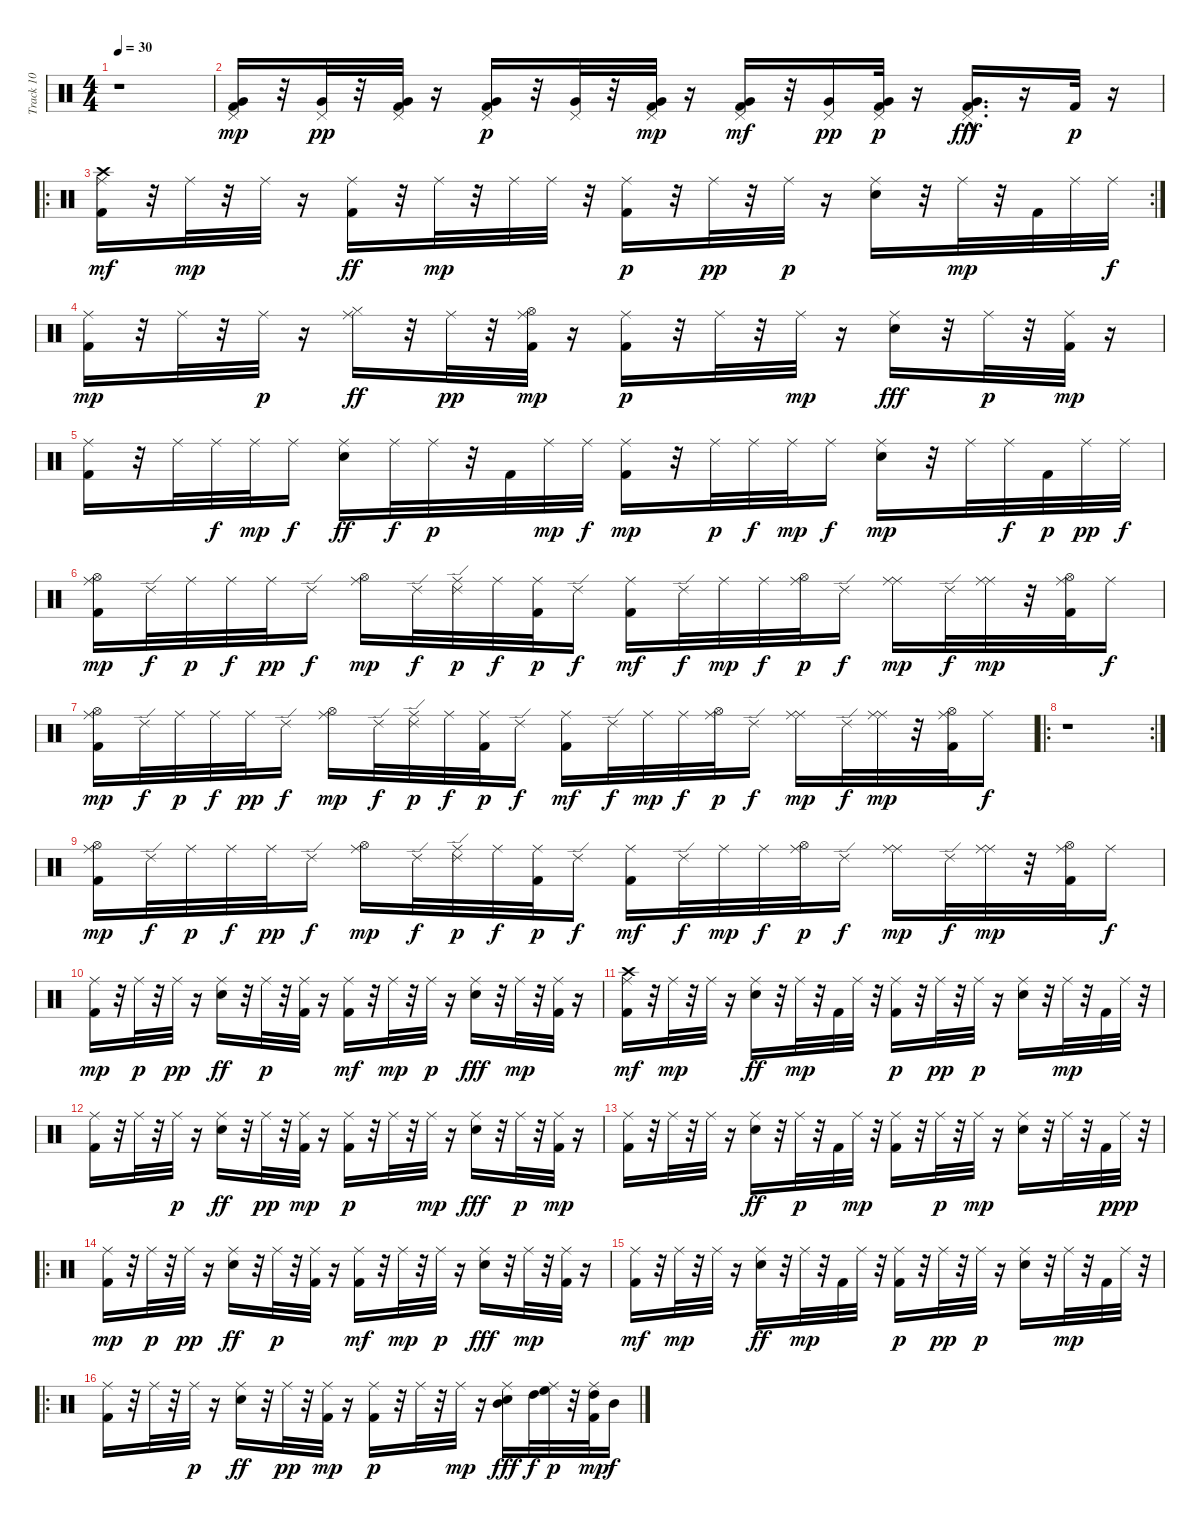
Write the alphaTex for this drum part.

\track ("Track 10" "Track 10") {instrument percussion}
\staff {score}
\articulation defaults
\ts (4 4)
\tempo 30
\clef neutral
\ks c
r.1{dy mp} |
("Pedal Hi-Hat (hit)" "Kick (hit) 2" "Very Low Tom (hit)").16 r.32 ("Pedal Hi-Hat (hit)" "Very Low Tom (hit)").32{dy pp} r.32 ("Pedal Hi-Hat (hit)" "Very Low Tom (hit)" "Kick (hit) 2").32 r.16 ("Kick (hit) 2" "Very Low Tom (hit)" "Pedal Hi-Hat (hit)").16{dy p} r.32 ("Pedal Hi-Hat (hit)" "Very Low Tom (hit)").32 r.32 ("Pedal Hi-Hat (hit)" "Kick (hit) 2" "Very Low Tom (hit)").32{dy mp} r.16 ("Pedal Hi-Hat (hit)" "Very Low Tom (hit)" "Kick (hit) 2").16{dy mf} r.32 ("Pedal Hi-Hat (hit)" "Very Low Tom (hit)").16{dy pp} ("Pedal Hi-Hat (hit)" "Very Low Tom (hit)" "Kick (hit) 2").32{dy p} r.16 ("Very Low Tom (hit)"{hac} "Kick (hit) 2" "Pedal Hi-Hat (hit)"{hac}).16{d dy fff} r.16 "Kick (hit) 2".32{dy p} r.16 |
\ro
\rc 2
("Ride (middle)" "Kick (hit) 2" "Crash high (hit)").16{dy mf} r.32 "Ride (middle)".32{dy mp} r.32 "Ride (middle)".32 r.16 ("Ride (middle)" "Kick (hit) 2").16{dy ff} r.32 "Ride (middle)".32{dy mp} r.32 "Ride (middle)".32 "Ride (middle)".32 r.32 ("Kick (hit) 2" "Ride (middle)").16{dy p} r.32 "Ride (middle)".32{dy pp} r.32 "Ride (middle)".32{dy p} r.16 ("Ride (middle)" "Electric Snare (hit)").16 r.32 "Ride (middle)".32{dy mp} r.32 "Kick (hit) 2".32 "Ride (middle)".32 "Ride (middle)".32{dy f} |
("Kick (hit) 2" "Ride (middle)").16{dy mp} r.32 "Ride (middle)".32 r.32 "Ride (middle)".32{dy p} r.16 ("Ride (middle)" "Hi-Hat (closed)").16{dy ff} r.32 "Ride (middle)".32{dy pp} r.32 ("Kick (hit) 2" "Ride (middle)" "Hi-Hat (open)").32{dy mp} r.16 ("Ride (middle)" "Kick (hit) 2").16{dy p} r.32 "Ride (middle)".32 r.32 "Ride (middle)".32{dy mp} r.16 ("Ride (middle)" "Electric Snare (hit)").16{dy fff} r.32 "Ride (middle)".32{dy p} r.32 ("Kick (hit) 2" "Ride (middle)").32{dy mp} r.16 |
("Ride (middle)" "Kick (hit) 2").16 r.32 "Ride (middle)".32 "Ride (middle)".32{dy f} "Ride (middle)".32{dy mp} "Ride (middle)".16{dy f} ("Ride (middle)" "Electric Snare (hit)").16{dy ff} "Ride (middle)".32{dy f} "Ride (middle)".32{dy p} r.32 "Kick (hit) 2".32 "Ride (middle)".32{dy mp} "Ride (middle)".32{dy f} ("Kick (hit) 2" "Ride (middle)").16{dy mp} r.32 "Ride (middle)".32{dy p} "Ride (middle)".32{dy f} "Ride (middle)".32{dy mp} "Ride (middle)".16{dy f} ("Ride (middle)" "Electric Snare (hit)").16{dy mp} r.32 "Ride (middle)".32 "Ride (middle)".32{dy f} "Kick (hit) 2".32{dy p} "Ride (middle)".32{dy pp} "Ride (middle)".32{dy f} |
("Kick (hit) 2" "Hi-Hat (open)" "Ride (middle)").16{dy mp} "Ride (edge) 2".32{dy f} "Ride (middle)".32{dy p} "Ride (middle)".32{dy f} "Ride (middle)".32{dy pp} "Ride (edge) 2".16{dy f} ("Ride (middle)" "Hi-Hat (open)").16{dy mp} "Ride (edge) 2".32{dy f} ("Ride (middle)" "Ride (edge) 2").32{dy p} "Ride (middle)".32{dy f} ("Kick (hit) 2" "Ride (middle)").32{dy p} "Ride (edge) 2".16{dy f} ("Ride (middle)" "Kick (hit) 2").16{dy mf} "Ride (edge) 2".32{dy f} "Ride (middle)".32{dy mp} "Ride (middle)".32{dy f} ("Ride (middle)" "Hi-Hat (open)").32{dy p} "Ride (edge) 2".16{dy f} ("Ride (middle)" "Ride (middle)").16{dy mp} "Ride (edge) 2".32{dy f} ("Ride (middle)" "Ride (middle)").32{dy mp} r.32 ("Kick (hit) 2" "Ride (middle)" "Hi-Hat (open)").32 "Ride (middle)".16{dy f} |
("Kick (hit) 2" "Hi-Hat (open)" "Ride (middle)").16{dy mp} "Ride (edge) 2".32{dy f} "Ride (middle)".32{dy p} "Ride (middle)".32{dy f} "Ride (middle)".32{dy pp} "Ride (edge) 2".16{dy f} ("Ride (middle)" "Hi-Hat (open)").16{dy mp} "Ride (edge) 2".32{dy f} ("Ride (middle)" "Ride (edge) 2").32{dy p} "Ride (middle)".32{dy f} ("Kick (hit) 2" "Ride (middle)").32{dy p} "Ride (edge) 2".16{dy f} ("Ride (middle)" "Kick (hit) 2").16{dy mf} "Ride (edge) 2".32{dy f} "Ride (middle)".32{dy mp} "Ride (middle)".32{dy f} ("Ride (middle)" "Hi-Hat (open)").32{dy p} "Ride (edge) 2".16{dy f} ("Ride (middle)" "Ride (middle)").16{dy mp} "Ride (edge) 2".32{dy f} ("Ride (middle)" "Ride (middle)").32{dy mp} r.32 ("Kick (hit) 2" "Ride (middle)" "Hi-Hat (open)").32 "Ride (middle)".16{dy f} |
\ro
\rc 2
r.1 |
("Kick (hit) 2" "Hi-Hat (open)" "Ride (middle)").16{dy mp} "Ride (edge) 2".32{dy f} "Ride (middle)".32{dy p} "Ride (middle)".32{dy f} "Ride (middle)".32{dy pp} "Ride (edge) 2".16{dy f} ("Ride (middle)" "Hi-Hat (open)").16{dy mp} "Ride (edge) 2".32{dy f} ("Ride (middle)" "Ride (edge) 2").32{dy p} "Ride (middle)".32{dy f} ("Kick (hit) 2" "Ride (middle)").32{dy p} "Ride (edge) 2".16{dy f} ("Ride (middle)" "Kick (hit) 2").16{dy mf} "Ride (edge) 2".32{dy f} "Ride (middle)".32{dy mp} "Ride (middle)".32{dy f} ("Ride (middle)" "Hi-Hat (open)").32{dy p} "Ride (edge) 2".16{dy f} ("Ride (middle)" "Ride (middle)").16{dy mp} "Ride (edge) 2".32{dy f} ("Ride (middle)" "Ride (middle)").32{dy mp} r.32 ("Kick (hit) 2" "Ride (middle)" "Hi-Hat (open)").32 "Ride (middle)".16{dy f} |
("Kick (hit) 2" "Ride (middle)").16{dy mp} r.32 "Ride (middle)".32{dy p} r.32 "Ride (middle)".32{dy pp} r.16 ("Ride (middle)" "Electric Snare (hit)").16{dy ff} r.32 "Ride (middle)".32{dy p} r.32 ("Kick (hit) 2" "Ride (middle)").32 r.16 ("Ride (middle)" "Kick (hit) 2").16{dy mf} r.32 "Ride (middle)".32{dy mp} r.32 "Ride (middle)".32{dy p} r.16 ("Ride (middle)" "Electric Snare (hit)").16{dy fff} r.32 "Ride (middle)".32{dy mp} r.32 ("Kick (hit) 2" "Ride (middle)").32 r.16 |
("Ride (middle)" "Kick (hit) 2" "Crash high (hit)").16{dy mf} r.32 "Ride (middle)".32{dy mp} r.32 "Ride (middle)".32 r.16 ("Ride (middle)" "Electric Snare (hit)").16{dy ff} r.32 "Ride (middle)".32{dy mp} r.32 "Kick (hit) 2".32 "Ride (middle)".32 r.32 ("Kick (hit) 2" "Ride (middle)").16{dy p} r.32 "Ride (middle)".32{dy pp} r.32 "Ride (middle)".32{dy p} r.16 ("Ride (middle)" "Electric Snare (hit)").16 r.32 "Ride (middle)".32{dy mp} r.32 "Kick (hit) 2".32 "Ride (middle)".32 r.32 |
("Kick (hit) 2" "Ride (middle)").16 r.32 "Ride (middle)".32 r.32 "Ride (middle)".32{dy p} r.16 ("Ride (middle)" "Electric Snare (hit)").16{dy ff} r.32 "Ride (middle)".32{dy pp} r.32 ("Kick (hit) 2" "Ride (middle)").32{dy mp} r.16 ("Ride (middle)" "Kick (hit) 2").16{dy p} r.32 "Ride (middle)".32 r.32 "Ride (middle)".32{dy mp} r.16 ("Ride (middle)" "Electric Snare (hit)").16{dy fff} r.32 "Ride (middle)".32{dy p} r.32 ("Kick (hit) 2" "Ride (middle)").32{dy mp} r.16 |
("Ride (middle)" "Kick (hit) 2").16 r.32 "Ride (middle)".32 r.32 "Ride (middle)".32 r.16 ("Ride (middle)" "Electric Snare (hit)").16{dy ff} r.32 "Ride (middle)".32{dy p} r.32 "Kick (hit) 2".32 "Ride (middle)".32{dy mp} r.32 ("Kick (hit) 2" "Ride (middle)").16 r.32 "Ride (middle)".32{dy p} r.32 "Ride (middle)".32{dy mp} r.16 ("Ride (middle)" "Electric Snare (hit)").16 r.32 "Ride (middle)".32 r.32 "Kick (hit) 2".32{dy p} "Ride (middle)".32{dy pp} r.32 |
\ro
("Kick (hit) 2" "Ride (middle)").16{dy mp} r.32 "Ride (middle)".32{dy p} r.32 "Ride (middle)".32{dy pp} r.16 ("Ride (middle)" "Electric Snare (hit)").16{dy ff} r.32 "Ride (middle)".32{dy p} r.32 ("Kick (hit) 2" "Ride (middle)").32 r.16 ("Ride (middle)" "Kick (hit) 2").16{dy mf} r.32 "Ride (middle)".32{dy mp} r.32 "Ride (middle)".32{dy p} r.16 ("Ride (middle)" "Electric Snare (hit)").16{dy fff} r.32 "Ride (middle)".32{dy mp} r.32 ("Kick (hit) 2" "Ride (middle)").32 r.16 |
("Ride (middle)" "Kick (hit) 2").16{dy mf} r.32 "Ride (middle)".32{dy mp} r.32 "Ride (middle)".32 r.16 ("Ride (middle)" "Electric Snare (hit)").16{dy ff} r.32 "Ride (middle)".32{dy mp} r.32 "Kick (hit) 2".32 "Ride (middle)".32 r.32 ("Kick (hit) 2" "Ride (middle)").16{dy p} r.32 "Ride (middle)".32{dy pp} r.32 "Ride (middle)".32{dy p} r.16 ("Ride (middle)" "Electric Snare (hit)").16 r.32 "Ride (middle)".32{dy mp} r.32 "Kick (hit) 2".32 "Ride (middle)".32 r.32 |
\ro
("Kick (hit) 2" "Ride (middle)").16 r.32 "Ride (middle)".32 r.32 "Ride (middle)".32{dy p} r.16 ("Ride (middle)" "Electric Snare (hit)").16{dy ff} r.32 "Ride (middle)".32{dy pp} r.32 ("Kick (hit) 2" "Ride (middle)").32{dy mp} r.16 ("Ride (middle)" "Kick (hit) 2").16{dy p} r.32 "Ride (middle)".32 r.32 "Ride (middle)".32{dy mp} r.16 ("Ride (middle)" "Electric Snare (hit)" "Mid Tom (hit)").16{dy fff} "High Tom (hit)".32{dy f} ("Ride (middle)" "High Floor Tom (hit)").32{dy p} r.32 ("Kick (hit) 2" "Ride (middle)" "High Tom (hit)").32{dy mp} "Mid Tom (hit)".16{dy f}
